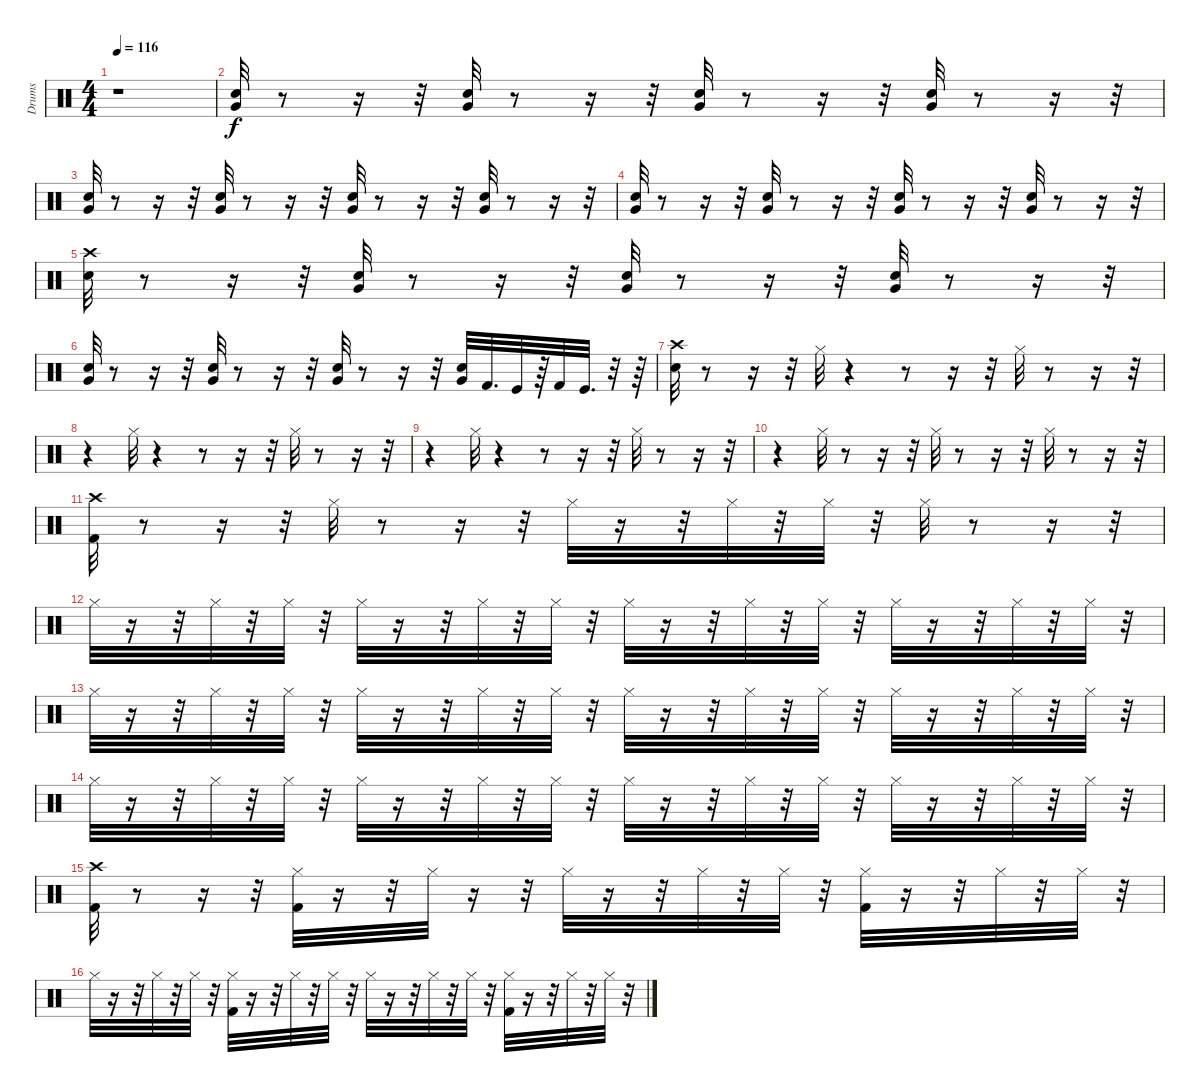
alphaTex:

\track ("Drums" "Drums") {instrument percussion}
\staff {score}
\articulation defaults
\ts (4 4)
\tempo 116
\clef neutral
\ks c
r.1{dy f} |
("Very Low Tom (hit)" "Snare (hit) 2").32 r.8 r.16 r.32 ("Very Low Tom (hit)" "Snare (hit) 2").32 r.8 r.16 r.32 ("Very Low Tom (hit)" "Snare (hit) 2").32 r.8 r.16 r.32 ("Very Low Tom (hit)" "Snare (hit) 2").32 r.8 r.16 r.32 |
("Very Low Tom (hit)" "Snare (hit) 2").32 r.8 r.16 r.32 ("Very Low Tom (hit)" "Snare (hit) 2").32 r.8 r.16 r.32 ("Very Low Tom (hit)" "Snare (hit) 2").32 r.8 r.16 r.32 ("Very Low Tom (hit)" "Snare (hit) 2").32 r.8 r.16 r.32 |
("Very Low Tom (hit)" "Snare (hit) 2").32 r.8 r.16 r.32 ("Very Low Tom (hit)" "Snare (hit) 2").32 r.8 r.16 r.32 ("Very Low Tom (hit)" "Snare (hit) 2").32 r.8 r.16 r.32 ("Very Low Tom (hit)" "Snare (hit) 2").32 r.8 r.16 r.32 |
("Crash high (hit)" "Snare (hit) 2").32 r.8 r.16 r.32 ("Very Low Tom (hit)" "Snare (hit) 2").32 r.8 r.16 r.32 ("Very Low Tom (hit)" "Snare (hit) 2").32 r.8 r.16 r.32 ("Very Low Tom (hit)" "Snare (hit) 2").32 r.8 r.16 r.32 |
("Snare (hit) 2" "Very Low Tom (hit)").32 r.8 r.16 r.32 ("Very Low Tom (hit)" "Snare (hit) 2").32 r.8 r.16 r.32 ("Snare (hit) 2" "Very Low Tom (hit)").32 r.8 r.16 r.32 ("Very Low Tom (hit)" "Snare (hit) 2").32 "Kick (hit) 2".32{d} "Kick (hit)".32 r.64 "Kick (hit) 2".32 "Kick (hit)".32{d} r.32 r.64 |
("Crash high (hit)" "Snare (hit) 2").32 r.8 r.16 r.32 "Hi-Hat (closed)".32 r.4 r.8 r.16 r.32 "Hi-Hat (closed)".32 r.8 r.16 r.32 |
r.4 "Hi-Hat (closed)".32 r.4 r.8 r.16 r.32 "Hi-Hat (closed)".32 r.8 r.16 r.32 |
r.4 "Hi-Hat (closed)".32 r.4 r.8 r.16 r.32 "Hi-Hat (closed)".32 r.8 r.16 r.32 |
r.4 "Hi-Hat (closed)".32 r.8 r.16 r.32 "Hi-Hat (closed)".32 r.8 r.16 r.32 "Hi-Hat (closed)".32 r.8 r.16 r.32 |
("Crash high (hit)" "Kick (hit) 2").32 r.8 r.16 r.32 "Hi-Hat (closed)".32 r.8 r.16 r.32 "Hi-Hat (closed)".32 r.16 r.32 "Hi-Hat (closed)".32 r.32 "Hi-Hat (closed)".32 r.32 "Hi-Hat (closed)".32 r.8 r.16 r.32 |
"Hi-Hat (closed)".32 r.16 r.32 "Hi-Hat (closed)".32 r.32 "Hi-Hat (closed)".32 r.32 "Hi-Hat (closed)".32 r.16 r.32 "Hi-Hat (closed)".32 r.32 "Hi-Hat (closed)".32 r.32 "Hi-Hat (closed)".32 r.16 r.32 "Hi-Hat (closed)".32 r.32 "Hi-Hat (closed)".32 r.32 "Hi-Hat (closed)".32 r.16 r.32 "Hi-Hat (closed)".32 r.32 "Hi-Hat (closed)".32 r.32 |
"Hi-Hat (closed)".32 r.16 r.32 "Hi-Hat (closed)".32 r.32 "Hi-Hat (closed)".32 r.32 "Hi-Hat (closed)".32 r.16 r.32 "Hi-Hat (closed)".32 r.32 "Hi-Hat (closed)".32 r.32 "Hi-Hat (closed)".32 r.16 r.32 "Hi-Hat (closed)".32 r.32 "Hi-Hat (closed)".32 r.32 "Hi-Hat (closed)".32 r.16 r.32 "Hi-Hat (closed)".32 r.32 "Hi-Hat (closed)".32 r.32 |
"Hi-Hat (closed)".32 r.16 r.32 "Hi-Hat (closed)".32 r.32 "Hi-Hat (closed)".32 r.32 "Hi-Hat (closed)".32 r.16 r.32 "Hi-Hat (closed)".32 r.32 "Hi-Hat (closed)".32 r.32 "Hi-Hat (closed)".32 r.16 r.32 "Hi-Hat (closed)".32 r.32 "Hi-Hat (closed)".32 r.32 "Hi-Hat (closed)".32 r.16 r.32 "Hi-Hat (closed)".32 r.32 "Hi-Hat (closed)".32 r.32 |
("Kick (hit) 2" "Crash high (hit)").32 r.8 r.16 r.32 ("Hi-Hat (closed)" "Kick (hit) 2").32 r.16 r.32 "Hi-Hat (closed)".32 r.16 r.32 "Hi-Hat (closed)".32 r.16 r.32 "Hi-Hat (closed)".32 r.32 "Hi-Hat (closed)".32 r.32 ("Hi-Hat (closed)" "Kick (hit) 2").32 r.16 r.32 "Hi-Hat (closed)".32 r.32 "Hi-Hat (closed)".32 r.32 |
"Hi-Hat (closed)".32 r.16 r.32 "Hi-Hat (closed)".32 r.32 "Hi-Hat (closed)".32 r.32 ("Kick (hit) 2" "Hi-Hat (closed)").32 r.16 r.32 "Hi-Hat (closed)".32 r.32 "Hi-Hat (closed)".32 r.32 "Hi-Hat (closed)".32 r.16 r.32 "Hi-Hat (closed)".32 r.32 "Hi-Hat (closed)".32 r.32 ("Kick (hit) 2" "Hi-Hat (closed)").32 r.16 r.32 "Hi-Hat (closed)".32 r.32 "Hi-Hat (closed)".32 r.32
